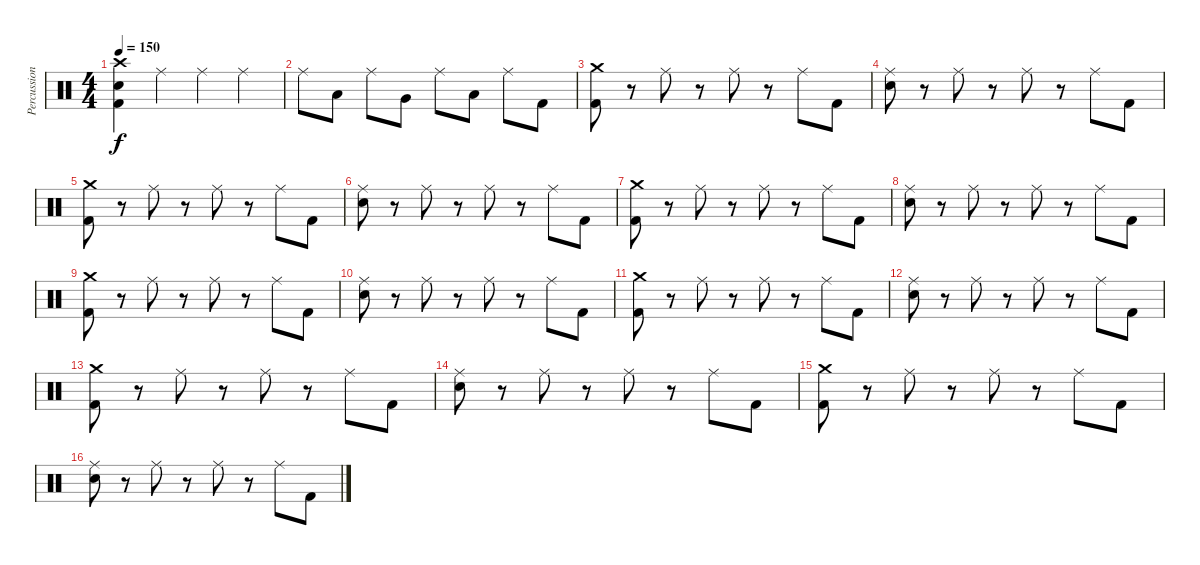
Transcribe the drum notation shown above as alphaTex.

\track ("Percussion" "Percussion") {instrument percussion}
\staff {score}
\articulation defaults
\ts (4 4)
\tempo 150
\clef neutral
\ks c
("Crash high (hit)" "Electric Snare (hit)" "Kick (hit) 2").4{dy f} "Ride (middle)".4 "Ride (middle)".4 "Ride (middle)".4 |
"Ride (middle)".8 "Low Tom (hit)".8 "Ride (middle)".8 "Very Low Tom (hit)".8 "Ride (middle)".8 "Low Floor Tom (hit)".8 "Ride (middle)".8 "Kick (hit) 2".8 |
("Crash medium (hit)" "Kick (hit) 2").8 r.8 "Ride (middle)".8 r.8 "Ride (middle)".8 r.8 "Ride (middle)".8 "Kick (hit) 2".8 |
("Ride (middle)" "Electric Snare (hit)").8 r.8 "Ride (middle)".8 r.8 "Ride (middle)".8 r.8 "Ride (middle)".8 "Kick (hit) 2".8 |
("Crash medium (hit)" "Kick (hit) 2").8 r.8 "Ride (middle)".8 r.8 "Ride (middle)".8 r.8 "Ride (middle)".8 "Kick (hit) 2".8 |
("Ride (middle)" "Electric Snare (hit)").8 r.8 "Ride (middle)".8 r.8 "Ride (middle)".8 r.8 "Ride (middle)".8 "Kick (hit) 2".8 |
("Crash medium (hit)" "Kick (hit) 2").8 r.8 "Ride (middle)".8 r.8 "Ride (middle)".8 r.8 "Ride (middle)".8 "Kick (hit) 2".8 |
("Ride (middle)" "Electric Snare (hit)").8 r.8 "Ride (middle)".8 r.8 "Ride (middle)".8 r.8 "Ride (middle)".8 "Kick (hit) 2".8 |
("Crash medium (hit)" "Kick (hit) 2").8 r.8 "Ride (middle)".8 r.8 "Ride (middle)".8 r.8 "Ride (middle)".8 "Kick (hit) 2".8 |
("Ride (middle)" "Electric Snare (hit)").8 r.8 "Ride (middle)".8 r.8 "Ride (middle)".8 r.8 "Ride (middle)".8 "Kick (hit) 2".8 |
("Crash medium (hit)" "Kick (hit) 2").8 r.8 "Ride (middle)".8 r.8 "Ride (middle)".8 r.8 "Ride (middle)".8 "Kick (hit) 2".8 |
("Ride (middle)" "Electric Snare (hit)").8 r.8 "Ride (middle)".8 r.8 "Ride (middle)".8 r.8 "Ride (middle)".8 "Kick (hit) 2".8 |
("Crash medium (hit)" "Kick (hit) 2").8 r.8 "Ride (middle)".8 r.8 "Ride (middle)".8 r.8 "Ride (middle)".8 "Kick (hit) 2".8 |
("Ride (middle)" "Electric Snare (hit)").8 r.8 "Ride (middle)".8 r.8 "Ride (middle)".8 r.8 "Ride (middle)".8 "Kick (hit) 2".8 |
("Crash medium (hit)" "Kick (hit) 2").8 r.8 "Ride (middle)".8 r.8 "Ride (middle)".8 r.8 "Ride (middle)".8 "Kick (hit) 2".8 |
("Ride (middle)" "Electric Snare (hit)").8 r.8 "Ride (middle)".8 r.8 "Ride (middle)".8 r.8 "Ride (middle)".8 "Kick (hit) 2".8
